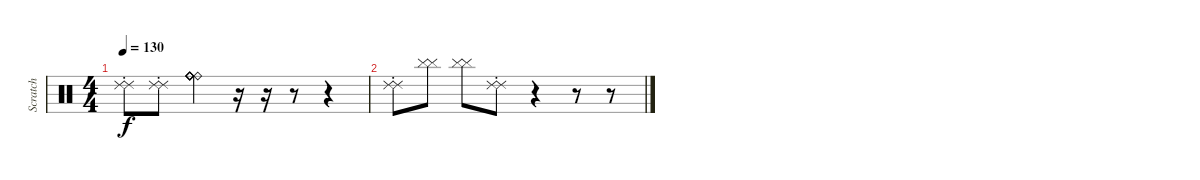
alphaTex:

\track ("Scratch" "Scratch") {instrument percussion}
\staff {score}
\articulation defaults
\ts (4 4)
\tempo 130
\clef neutral
\ks c
("Ride (choke) 2" "Ride (choke) 2").8{dy f} ("Ride (choke) 2" "Ride (choke) 2").8 ("Ride (bell)" "Ride (bell)" "Ride (bell)" "Ride (bell)" "Ride (bell)" "Ride (bell)").4 r.16 r.16 r.8 r.4 |
("Ride (choke) 2" "Ride (choke) 2").8 ("Cymbal (hit)" "Cymbal (hit)").8 ("Cymbal (hit)" "Cymbal (hit)").8 ("Ride (choke) 2" "Ride (choke) 2").8 r.4 r.8 r.8
